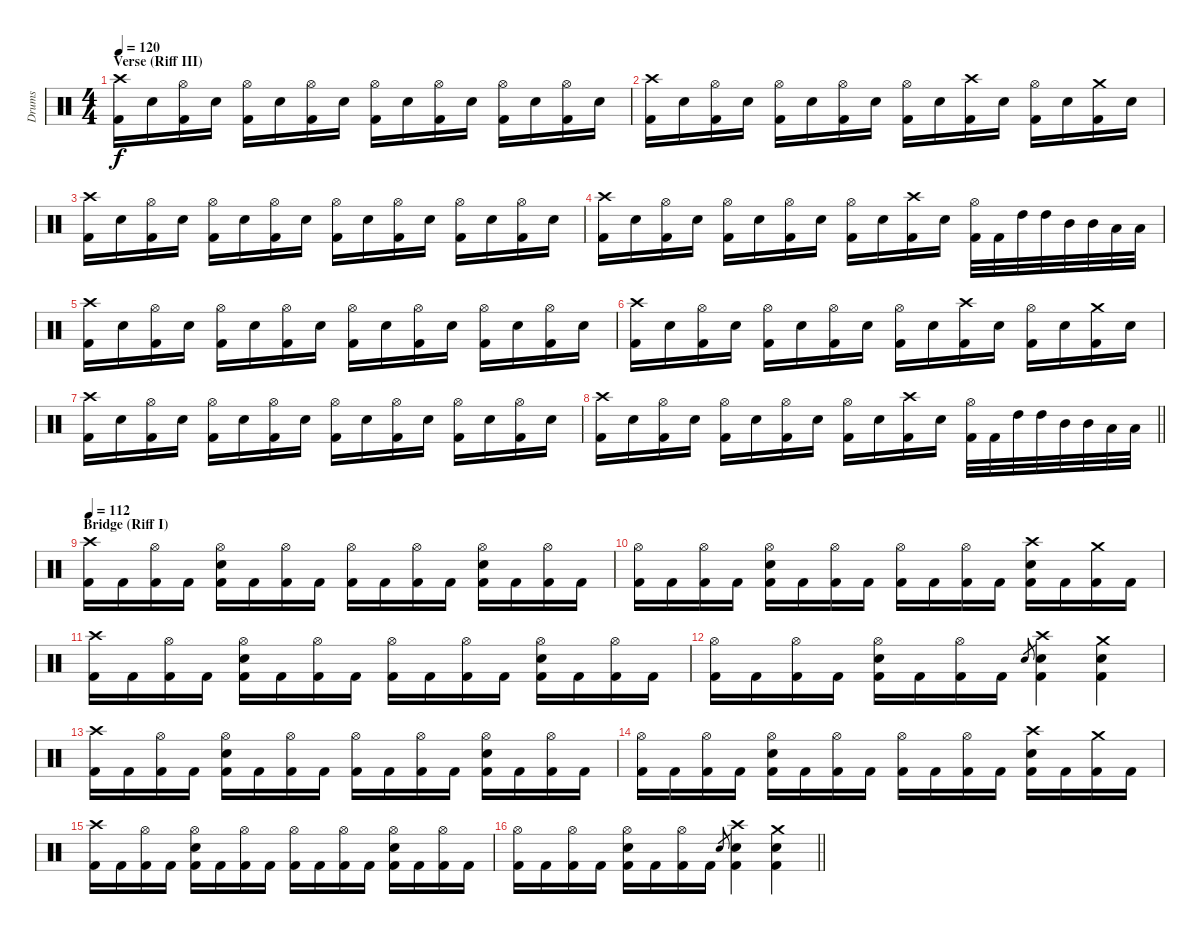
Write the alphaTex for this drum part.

\track ("Drums" "Drums") {instrument percussion}
\staff {score}
\articulation defaults
\ts (4 4)
\section ("" "Verse (Riff III)")
\tempo 120
\clef neutral
\ks c
("Crash high (hit)" "Kick (hit) 2").16{dy f} "Electric Snare (hit)".16 ("Hi-Hat (open)" "Kick (hit) 2").16 "Electric Snare (hit)".16 ("Hi-Hat (open)" "Kick (hit) 2").16 "Electric Snare (hit)".16 ("Hi-Hat (open)" "Kick (hit) 2").16 "Electric Snare (hit)".16 ("Hi-Hat (open)" "Kick (hit) 2").16 "Electric Snare (hit)".16 ("Hi-Hat (open)" "Kick (hit) 2").16 "Electric Snare (hit)".16 ("Hi-Hat (open)" "Kick (hit) 2").16 "Electric Snare (hit)".16 ("Hi-Hat (open)" "Kick (hit) 2").16 "Electric Snare (hit)".16 |
("Crash high (hit)" "Kick (hit) 2").16 "Electric Snare (hit)".16 ("Hi-Hat (open)" "Kick (hit) 2").16 "Electric Snare (hit)".16 ("Hi-Hat (open)" "Kick (hit) 2").16 "Electric Snare (hit)".16 ("Hi-Hat (open)" "Kick (hit) 2").16 "Electric Snare (hit)".16 ("Hi-Hat (open)" "Kick (hit) 2").16 "Electric Snare (hit)".16 ("Crash high (hit)" "Kick (hit) 2").16 "Electric Snare (hit)".16 ("Hi-Hat (open)" "Kick (hit) 2").16 "Electric Snare (hit)".16 ("Crash medium (hit)" "Kick (hit) 2").16 "Electric Snare (hit)".16 |
("Crash high (hit)" "Kick (hit) 2").16 "Electric Snare (hit)".16 ("Hi-Hat (open)" "Kick (hit) 2").16 "Electric Snare (hit)".16 ("Hi-Hat (open)" "Kick (hit) 2").16 "Electric Snare (hit)".16 ("Hi-Hat (open)" "Kick (hit) 2").16 "Electric Snare (hit)".16 ("Hi-Hat (open)" "Kick (hit) 2").16 "Electric Snare (hit)".16 ("Hi-Hat (open)" "Kick (hit) 2").16 "Electric Snare (hit)".16 ("Hi-Hat (open)" "Kick (hit) 2").16 "Electric Snare (hit)".16 ("Hi-Hat (open)" "Kick (hit) 2").16 "Electric Snare (hit)".16 |
("Crash high (hit)" "Kick (hit) 2").16 "Electric Snare (hit)".16 ("Hi-Hat (open)" "Kick (hit) 2").16 "Electric Snare (hit)".16 ("Hi-Hat (open)" "Kick (hit) 2").16 "Electric Snare (hit)".16 ("Hi-Hat (open)" "Kick (hit) 2").16 "Electric Snare (hit)".16 ("Hi-Hat (open)" "Kick (hit) 2").16 "Electric Snare (hit)".16 ("Crash high (hit)" "Kick (hit) 2").16 "Electric Snare (hit)".16 ("Hi-Hat (open)" "Kick (hit) 2").32 "Kick (hit) 2".32 "High Tom (hit)".32 "High Tom (hit)".32 "Mid Tom (hit)".32 "Mid Tom (hit)".32 "Low Tom (hit)".32 "Low Tom (hit)".32 |
("Crash high (hit)" "Kick (hit) 2").16 "Electric Snare (hit)".16 ("Hi-Hat (open)" "Kick (hit) 2").16 "Electric Snare (hit)".16 ("Hi-Hat (open)" "Kick (hit) 2").16 "Electric Snare (hit)".16 ("Hi-Hat (open)" "Kick (hit) 2").16 "Electric Snare (hit)".16 ("Hi-Hat (open)" "Kick (hit) 2").16 "Electric Snare (hit)".16 ("Hi-Hat (open)" "Kick (hit) 2").16 "Electric Snare (hit)".16 ("Hi-Hat (open)" "Kick (hit) 2").16 "Electric Snare (hit)".16 ("Hi-Hat (open)" "Kick (hit) 2").16 "Electric Snare (hit)".16 |
("Crash high (hit)" "Kick (hit) 2").16 "Electric Snare (hit)".16 ("Hi-Hat (open)" "Kick (hit) 2").16 "Electric Snare (hit)".16 ("Hi-Hat (open)" "Kick (hit) 2").16 "Electric Snare (hit)".16 ("Hi-Hat (open)" "Kick (hit) 2").16 "Electric Snare (hit)".16 ("Hi-Hat (open)" "Kick (hit) 2").16 "Electric Snare (hit)".16 ("Crash high (hit)" "Kick (hit) 2").16 "Electric Snare (hit)".16 ("Hi-Hat (open)" "Kick (hit) 2").16 "Electric Snare (hit)".16 ("Crash medium (hit)" "Kick (hit) 2").16 "Electric Snare (hit)".16 |
("Crash high (hit)" "Kick (hit) 2").16 "Electric Snare (hit)".16 ("Hi-Hat (open)" "Kick (hit) 2").16 "Electric Snare (hit)".16 ("Hi-Hat (open)" "Kick (hit) 2").16 "Electric Snare (hit)".16 ("Hi-Hat (open)" "Kick (hit) 2").16 "Electric Snare (hit)".16 ("Hi-Hat (open)" "Kick (hit) 2").16 "Electric Snare (hit)".16 ("Hi-Hat (open)" "Kick (hit) 2").16 "Electric Snare (hit)".16 ("Hi-Hat (open)" "Kick (hit) 2").16 "Electric Snare (hit)".16 ("Hi-Hat (open)" "Kick (hit) 2").16 "Electric Snare (hit)".16 |
\barLineRight lightlight
("Crash high (hit)" "Kick (hit) 2").16 "Electric Snare (hit)".16 ("Hi-Hat (open)" "Kick (hit) 2").16 "Electric Snare (hit)".16 ("Hi-Hat (open)" "Kick (hit) 2").16 "Electric Snare (hit)".16 ("Hi-Hat (open)" "Kick (hit) 2").16 "Electric Snare (hit)".16 ("Hi-Hat (open)" "Kick (hit) 2").16 "Electric Snare (hit)".16 ("Crash high (hit)" "Kick (hit) 2").16 "Electric Snare (hit)".16 ("Hi-Hat (open)" "Kick (hit) 2").32 "Kick (hit) 2".32 "High Tom (hit)".32 "High Tom (hit)".32 "Mid Tom (hit)".32 "Mid Tom (hit)".32 "Low Tom (hit)".32 "Low Tom (hit)".32 |
\section ("" "Bridge (Riff I)")
\tempo 112
("Crash high (hit)" "Kick (hit) 2").16 "Kick (hit) 2".16 ("Hi-Hat (open)" "Kick (hit) 2").16 "Kick (hit) 2".16 ("Hi-Hat (open)" "Electric Snare (hit)" "Kick (hit) 2").16 "Kick (hit) 2".16 ("Hi-Hat (open)" "Kick (hit) 2").16 "Kick (hit) 2".16 ("Hi-Hat (open)" "Kick (hit) 2").16 "Kick (hit) 2".16 ("Hi-Hat (open)" "Kick (hit) 2").16 "Kick (hit) 2".16 ("Hi-Hat (open)" "Electric Snare (hit)" "Kick (hit) 2").16 "Kick (hit) 2".16 ("Hi-Hat (open)" "Kick (hit) 2").16 "Kick (hit) 2".16 |
("Hi-Hat (open)" "Kick (hit) 2").16 "Kick (hit) 2".16 ("Hi-Hat (open)" "Kick (hit) 2").16 "Kick (hit) 2".16 ("Hi-Hat (open)" "Electric Snare (hit)" "Kick (hit) 2").16 "Kick (hit) 2".16 ("Hi-Hat (open)" "Kick (hit) 2").16 "Kick (hit) 2".16 ("Hi-Hat (open)" "Kick (hit) 2").16 "Kick (hit) 2".16 ("Hi-Hat (open)" "Kick (hit) 2").16 "Kick (hit) 2".16 ("Crash high (hit)" "Electric Snare (hit)" "Kick (hit) 2").16 "Kick (hit) 2".16 ("Crash medium (hit)" "Kick (hit) 2").16 "Kick (hit) 2".16 |
("Crash high (hit)" "Kick (hit) 2").16 "Kick (hit) 2".16 ("Hi-Hat (open)" "Kick (hit) 2").16 "Kick (hit) 2".16 ("Hi-Hat (open)" "Electric Snare (hit)" "Kick (hit) 2").16 "Kick (hit) 2".16 ("Hi-Hat (open)" "Kick (hit) 2").16 "Kick (hit) 2".16 ("Hi-Hat (open)" "Kick (hit) 2").16 "Kick (hit) 2".16 ("Hi-Hat (open)" "Kick (hit) 2").16 "Kick (hit) 2".16 ("Hi-Hat (open)" "Electric Snare (hit)" "Kick (hit) 2").16 "Kick (hit) 2".16 ("Hi-Hat (open)" "Kick (hit) 2").16 "Kick (hit) 2".16 |
("Hi-Hat (open)" "Kick (hit) 2").16 "Kick (hit) 2".16 ("Hi-Hat (open)" "Kick (hit) 2").16 "Kick (hit) 2".16 ("Hi-Hat (open)" "Electric Snare (hit)" "Kick (hit) 2").16 "Kick (hit) 2".16 ("Hi-Hat (open)" "Kick (hit) 2").16 "Kick (hit) 2".16 "Electric Snare (hit)".8{gr} ("Crash high (hit)" "Electric Snare (hit)" "Kick (hit) 2").4 ("Crash medium (hit)" "Electric Snare (hit)" "Kick (hit) 2").4 |
("Crash high (hit)" "Kick (hit) 2").16 "Kick (hit) 2".16 ("Hi-Hat (open)" "Kick (hit) 2").16 "Kick (hit) 2".16 ("Hi-Hat (open)" "Electric Snare (hit)" "Kick (hit) 2").16 "Kick (hit) 2".16 ("Hi-Hat (open)" "Kick (hit) 2").16 "Kick (hit) 2".16 ("Hi-Hat (open)" "Kick (hit) 2").16 "Kick (hit) 2".16 ("Hi-Hat (open)" "Kick (hit) 2").16 "Kick (hit) 2".16 ("Hi-Hat (open)" "Electric Snare (hit)" "Kick (hit) 2").16 "Kick (hit) 2".16 ("Hi-Hat (open)" "Kick (hit) 2").16 "Kick (hit) 2".16 |
("Hi-Hat (open)" "Kick (hit) 2").16 "Kick (hit) 2".16 ("Hi-Hat (open)" "Kick (hit) 2").16 "Kick (hit) 2".16 ("Hi-Hat (open)" "Electric Snare (hit)" "Kick (hit) 2").16 "Kick (hit) 2".16 ("Hi-Hat (open)" "Kick (hit) 2").16 "Kick (hit) 2".16 ("Hi-Hat (open)" "Kick (hit) 2").16 "Kick (hit) 2".16 ("Hi-Hat (open)" "Kick (hit) 2").16 "Kick (hit) 2".16 ("Crash high (hit)" "Electric Snare (hit)" "Kick (hit) 2").16 "Kick (hit) 2".16 ("Crash medium (hit)" "Kick (hit) 2").16 "Kick (hit) 2".16 |
("Crash high (hit)" "Kick (hit) 2").16 "Kick (hit) 2".16 ("Hi-Hat (open)" "Kick (hit) 2").16 "Kick (hit) 2".16 ("Hi-Hat (open)" "Electric Snare (hit)" "Kick (hit) 2").16 "Kick (hit) 2".16 ("Hi-Hat (open)" "Kick (hit) 2").16 "Kick (hit) 2".16 ("Hi-Hat (open)" "Kick (hit) 2").16 "Kick (hit) 2".16 ("Hi-Hat (open)" "Kick (hit) 2").16 "Kick (hit) 2".16 ("Hi-Hat (open)" "Electric Snare (hit)" "Kick (hit) 2").16 "Kick (hit) 2".16 ("Hi-Hat (open)" "Kick (hit) 2").16 "Kick (hit) 2".16 |
\barLineRight lightlight
("Hi-Hat (open)" "Kick (hit) 2").16 "Kick (hit) 2".16 ("Hi-Hat (open)" "Kick (hit) 2").16 "Kick (hit) 2".16 ("Hi-Hat (open)" "Electric Snare (hit)" "Kick (hit) 2").16 "Kick (hit) 2".16 ("Hi-Hat (open)" "Kick (hit) 2").16 "Kick (hit) 2".16 "Electric Snare (hit)".8{gr} ("Crash high (hit)" "Electric Snare (hit)" "Kick (hit) 2").4 ("Crash medium (hit)" "Electric Snare (hit)" "Kick (hit) 2").4
